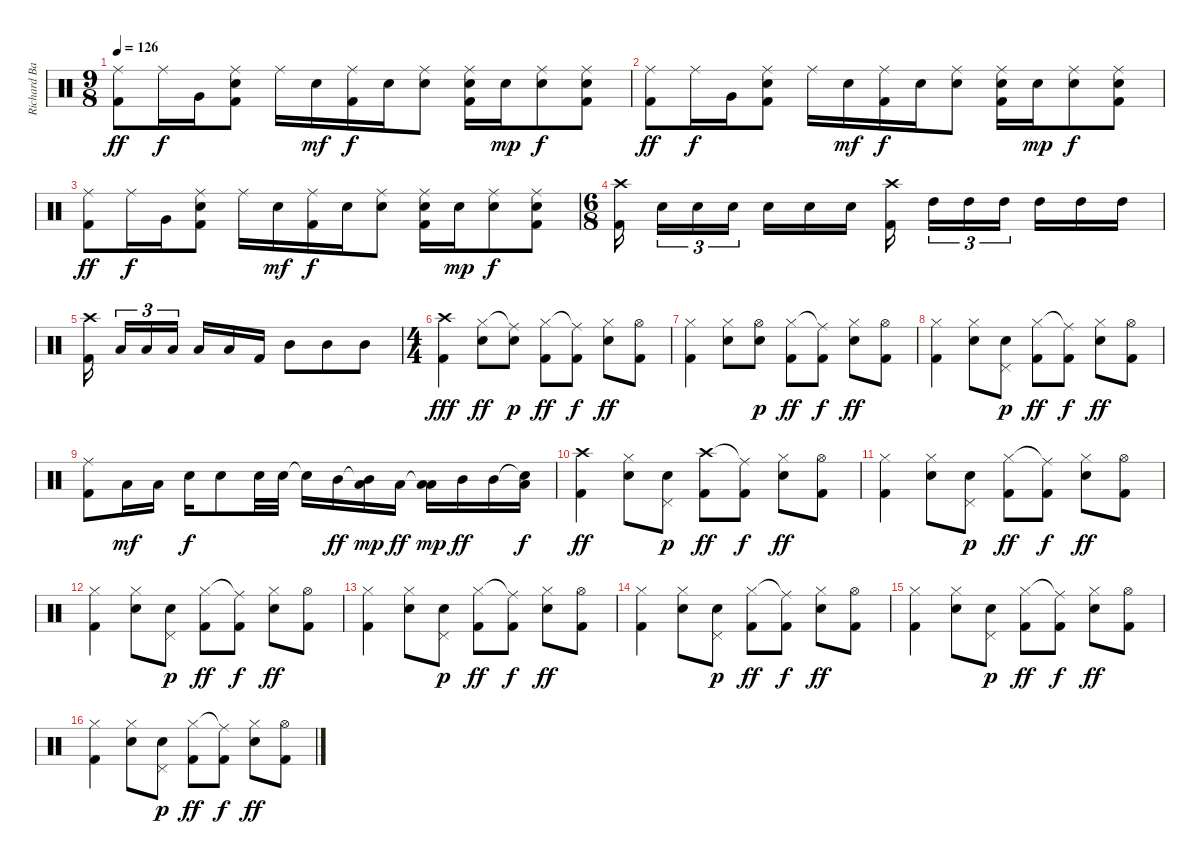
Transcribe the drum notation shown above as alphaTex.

\track ("Richard Bailey" "Richard Ba") {instrument percussion}
\staff {score}
\articulation defaults
\ts (9 8)
\tempo 126
\clef neutral
\ks c
("Ride (middle)" "Kick (hit) 2").8{dy ff} "Ride (middle)".16{dy f} "Very Low Tom (hit)".16 ("Ride (middle)" "Snare (hit) 2" "Kick (hit) 2").8 "Ride (middle)".16 "Snare (hit) 2".16{dy mf} ("Ride (middle)" "Kick (hit) 2").16{dy f} "Snare (hit) 2".16 ("Ride (middle)" "Snare (hit) 2").8 ("Ride (middle)" "Snare (hit) 2" "Kick (hit) 2").16 "Snare (hit) 2".16{dy mp} ("Ride (middle)" "Snare (hit) 2").8{dy f} ("Ride (middle)" "Snare (hit) 2" "Kick (hit) 2").8 |
("Ride (middle)" "Kick (hit) 2").8{dy ff} "Ride (middle)".16{dy f} "Very Low Tom (hit)".16 ("Ride (middle)" "Snare (hit) 2" "Kick (hit) 2").8 "Ride (middle)".16 "Snare (hit) 2".16{dy mf} ("Ride (middle)" "Kick (hit) 2").16{dy f} "Snare (hit) 2".16 ("Ride (middle)" "Snare (hit) 2").8 ("Ride (middle)" "Snare (hit) 2" "Kick (hit) 2").16 "Snare (hit) 2".16{dy mp} ("Ride (middle)" "Snare (hit) 2").8{dy f} ("Ride (middle)" "Snare (hit) 2" "Kick (hit) 2").8 |
("Ride (middle)" "Kick (hit) 2").8{dy ff} "Ride (middle)".16{dy f} "Very Low Tom (hit)".16 ("Ride (middle)" "Snare (hit) 2" "Kick (hit) 2").8 "Ride (middle)".16 "Snare (hit) 2".16{dy mf} ("Ride (middle)" "Kick (hit) 2").16{dy f} "Snare (hit) 2".16 ("Ride (middle)" "Snare (hit) 2").8 ("Ride (middle)" "Snare (hit) 2" "Kick (hit) 2").16 "Snare (hit) 2".16{dy mp} ("Ride (middle)" "Snare (hit) 2").8{dy f} ("Ride (middle)" "Snare (hit) 2" "Kick (hit) 2").8 |
\ts (6 8)
("Crash high (hit)" "Kick (hit) 2").16 "Snare (hit) 2".16{tu (3 2)} "Snare (hit) 2".16{tu (3 2)} "Snare (hit) 2".16{tu (3 2)} "Snare (hit) 2".16 "Snare (hit) 2".16 "Snare (hit) 2".16 ("Crash high (hit)" "Kick (hit) 2").16 "High Tom (hit)".16{tu (3 2)} "High Tom (hit)".16{tu (3 2)} "High Tom (hit)".16{tu (3 2)} "High Tom (hit)".16 "High Tom (hit)".16 "High Tom (hit)".16 |
("Crash high (hit)" "Kick (hit) 2").16 "Low Tom (hit)".16{tu (3 2)} "Low Tom (hit)".16{tu (3 2)} "Low Tom (hit)".16{tu (3 2)} "Low Tom (hit)".16 "Low Tom (hit)".16 "Kick (hit) 2".16 "Mid Tom (hit)".8 "Mid Tom (hit)".8 "Mid Tom (hit)".8 |
\ts (4 4)
("Crash high (hit)" "Kick (hit) 2").4{dy fff} ("Hi-Hat (closed)" "Snare (hit) 2").8{dy ff} ("Ride (middle)"{t} "Snare (hit) 2").8{dy p} ("Hi-Hat (closed)" "Kick (hit) 2").8{dy ff} ("Ride (middle)"{t} "Kick (hit) 2").8{dy f} ("Hi-Hat (closed)" "Snare (hit) 2").8{dy ff} ("Hi-Hat (open)" "Kick (hit) 2").8 |
("Hi-Hat (closed)" "Kick (hit) 2").4 ("Hi-Hat (closed)" "Snare (hit) 2").8 ("Hi-Hat (open)" "Snare (hit) 2").8{dy p} ("Hi-Hat (closed)" "Kick (hit) 2").8{dy ff} ("Ride (middle)"{t} "Kick (hit) 2").8{dy f} ("Hi-Hat (closed)" "Snare (hit) 2").8{dy ff} ("Hi-Hat (open)" "Kick (hit) 2").8 |
("Hi-Hat (closed)" "Kick (hit) 2").4 ("Hi-Hat (closed)" "Snare (hit) 2").8 ("Pedal Hi-Hat (hit)" "Snare (hit) 2").8{dy p} ("Hi-Hat (closed)" "Kick (hit) 2").8{dy ff} ("Ride (middle)"{t} "Kick (hit) 2").8{dy f} ("Hi-Hat (closed)" "Snare (hit) 2").8{dy ff} ("Hi-Hat (open)" "Kick (hit) 2").8 |
("Ride (middle)" "Kick (hit) 2").8 "Low Floor Tom (hit)".16{dy mf} "Low Floor Tom (hit)".16 "Electric Snare (hit)".16{dy f} "Electric Snare (hit)".8 "Snare (hit) 2".32 "Snare (hit) 2".32 "Snare (hit)"{t}.16 "Mid Tom (hit)".16{dy ff} ("Mid Tom (hit)"{t} "Low Floor Tom (hit)").16{dy mp} "Low Tom (hit)".16{dy ff} ("Low Tom (hit)"{t} "Low Floor Tom (hit)").16{dy mp} "Mid Tom (hit)".16{dy ff} "Mid Tom (hit)".16 ("Snare (hit)"{t} "Low Floor Tom (hit)").16{dy f} |
("Crash high (hit)" "Kick (hit) 2").4{dy ff} ("Hi-Hat (closed)" "Snare (hit) 2").8 ("Pedal Hi-Hat (hit)" "Snare (hit) 2").8{dy p} ("Crash high (hit)" "Kick (hit) 2").8{dy ff} ("Ride (middle)"{t} "Kick (hit) 2").8{dy f} ("Hi-Hat (closed)" "Snare (hit) 2").8{dy ff} ("Hi-Hat (open)" "Kick (hit) 2").8 |
("Hi-Hat (closed)" "Kick (hit) 2").4 ("Hi-Hat (closed)" "Snare (hit) 2").8 ("Pedal Hi-Hat (hit)" "Snare (hit) 2").8{dy p} ("Hi-Hat (closed)" "Kick (hit) 2").8{dy ff} ("Ride (middle)"{t} "Kick (hit) 2").8{dy f} ("Hi-Hat (closed)" "Snare (hit) 2").8{dy ff} ("Hi-Hat (open)" "Kick (hit) 2").8 |
("Hi-Hat (closed)" "Kick (hit) 2").4 ("Hi-Hat (closed)" "Snare (hit) 2").8 ("Pedal Hi-Hat (hit)" "Snare (hit) 2").8{dy p} ("Hi-Hat (closed)" "Kick (hit) 2").8{dy ff} ("Ride (middle)"{t} "Kick (hit) 2").8{dy f} ("Hi-Hat (closed)" "Snare (hit) 2").8{dy ff} ("Hi-Hat (open)" "Kick (hit) 2").8 |
("Hi-Hat (closed)" "Kick (hit) 2").4 ("Hi-Hat (closed)" "Snare (hit) 2").8 ("Pedal Hi-Hat (hit)" "Snare (hit) 2").8{dy p} ("Hi-Hat (closed)" "Kick (hit) 2").8{dy ff} ("Ride (middle)"{t} "Kick (hit) 2").8{dy f} ("Hi-Hat (closed)" "Snare (hit) 2").8{dy ff} ("Hi-Hat (open)" "Kick (hit) 2").8 |
("Hi-Hat (closed)" "Kick (hit) 2").4 ("Hi-Hat (closed)" "Snare (hit) 2").8 ("Pedal Hi-Hat (hit)" "Snare (hit) 2").8{dy p} ("Hi-Hat (closed)" "Kick (hit) 2").8{dy ff} ("Ride (middle)"{t} "Kick (hit) 2").8{dy f} ("Hi-Hat (closed)" "Snare (hit) 2").8{dy ff} ("Hi-Hat (open)" "Kick (hit) 2").8 |
("Hi-Hat (closed)" "Kick (hit) 2").4 ("Hi-Hat (closed)" "Snare (hit) 2").8 ("Pedal Hi-Hat (hit)" "Snare (hit) 2").8{dy p} ("Hi-Hat (closed)" "Kick (hit) 2").8{dy ff} ("Ride (middle)"{t} "Kick (hit) 2").8{dy f} ("Hi-Hat (closed)" "Snare (hit) 2").8{dy ff} ("Hi-Hat (open)" "Kick (hit) 2").8 |
("Hi-Hat (closed)" "Kick (hit) 2").4 ("Hi-Hat (closed)" "Snare (hit) 2").8 ("Pedal Hi-Hat (hit)" "Snare (hit) 2").8{dy p} ("Hi-Hat (closed)" "Kick (hit) 2").8{dy ff} ("Ride (middle)"{t} "Kick (hit) 2").8{dy f} ("Hi-Hat (closed)" "Snare (hit) 2").8{dy ff} ("Hi-Hat (open)" "Kick (hit) 2").8
